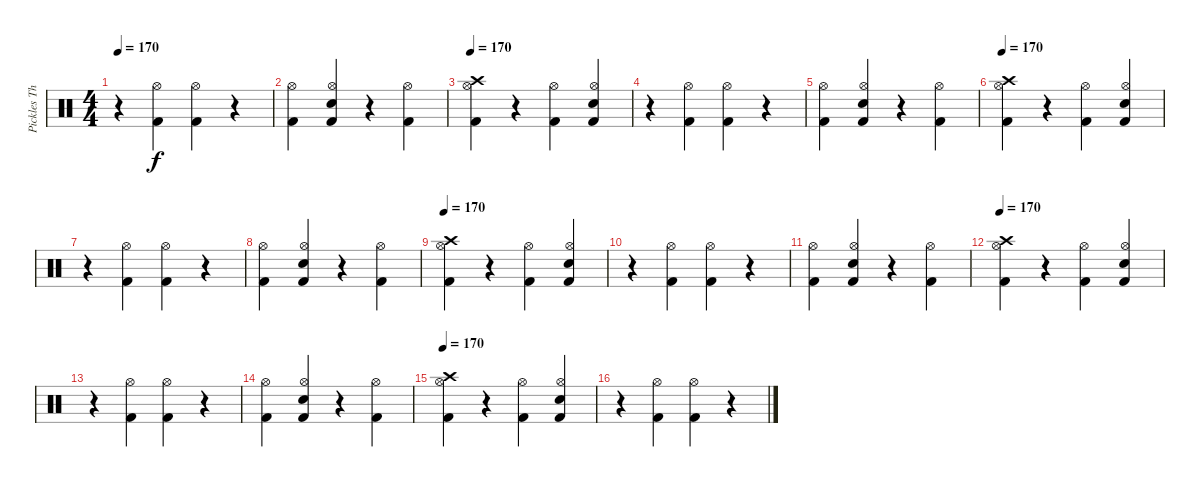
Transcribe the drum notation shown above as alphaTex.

\track ("Pickles The Drummer" "Pickles Th") {instrument percussion}
\staff {score}
\articulation defaults
\ts (4 4)
\tempo 170
\clef neutral
\ks c
r.4{dy f} ("Kick (hit) 2" "Hi-Hat (open)").4 ("Kick (hit) 2" "Hi-Hat (open)").4 r.4 |
("Kick (hit) 2" "Hi-Hat (open)").4 ("Kick (hit) 2" "Hi-Hat (open)" "Snare (hit) 2").4 r.4 ("Kick (hit) 2" "Hi-Hat (open)").4 |
\tempo 170
("Kick (hit) 2" "Hi-Hat (open)" "Crash high (hit)").4 r.4 ("Kick (hit) 2" "Hi-Hat (open)").4 ("Kick (hit) 2" "Hi-Hat (open)" "Snare (hit) 2").4 |
r.4 ("Kick (hit) 2" "Hi-Hat (open)").4 ("Kick (hit) 2" "Hi-Hat (open)").4 r.4 |
("Kick (hit) 2" "Hi-Hat (open)").4 ("Kick (hit) 2" "Hi-Hat (open)" "Snare (hit) 2").4 r.4 ("Kick (hit) 2" "Hi-Hat (open)").4 |
\tempo 170
("Kick (hit) 2" "Hi-Hat (open)" "Crash high (hit)").4 r.4 ("Kick (hit) 2" "Hi-Hat (open)").4 ("Kick (hit) 2" "Hi-Hat (open)" "Snare (hit) 2").4 |
r.4 ("Kick (hit) 2" "Hi-Hat (open)").4 ("Kick (hit) 2" "Hi-Hat (open)").4 r.4 |
("Kick (hit) 2" "Hi-Hat (open)").4 ("Kick (hit) 2" "Hi-Hat (open)" "Snare (hit) 2").4 r.4 ("Kick (hit) 2" "Hi-Hat (open)").4 |
\tempo 170
("Kick (hit) 2" "Hi-Hat (open)" "Crash high (hit)").4 r.4 ("Kick (hit) 2" "Hi-Hat (open)").4 ("Kick (hit) 2" "Hi-Hat (open)" "Snare (hit) 2").4 |
r.4 ("Kick (hit) 2" "Hi-Hat (open)").4 ("Kick (hit) 2" "Hi-Hat (open)").4 r.4 |
("Kick (hit) 2" "Hi-Hat (open)").4 ("Kick (hit) 2" "Hi-Hat (open)" "Snare (hit) 2").4 r.4 ("Kick (hit) 2" "Hi-Hat (open)").4 |
\tempo 170
("Kick (hit) 2" "Hi-Hat (open)" "Crash high (hit)").4 r.4 ("Kick (hit) 2" "Hi-Hat (open)").4 ("Kick (hit) 2" "Hi-Hat (open)" "Snare (hit) 2").4 |
r.4 ("Kick (hit) 2" "Hi-Hat (open)").4 ("Kick (hit) 2" "Hi-Hat (open)").4 r.4 |
("Kick (hit) 2" "Hi-Hat (open)").4 ("Kick (hit) 2" "Hi-Hat (open)" "Snare (hit) 2").4 r.4 ("Kick (hit) 2" "Hi-Hat (open)").4 |
\tempo 170
("Kick (hit) 2" "Hi-Hat (open)" "Crash high (hit)").4 r.4 ("Kick (hit) 2" "Hi-Hat (open)").4 ("Kick (hit) 2" "Hi-Hat (open)" "Snare (hit) 2").4 |
r.4 ("Kick (hit) 2" "Hi-Hat (open)").4 ("Kick (hit) 2" "Hi-Hat (open)").4 r.4
